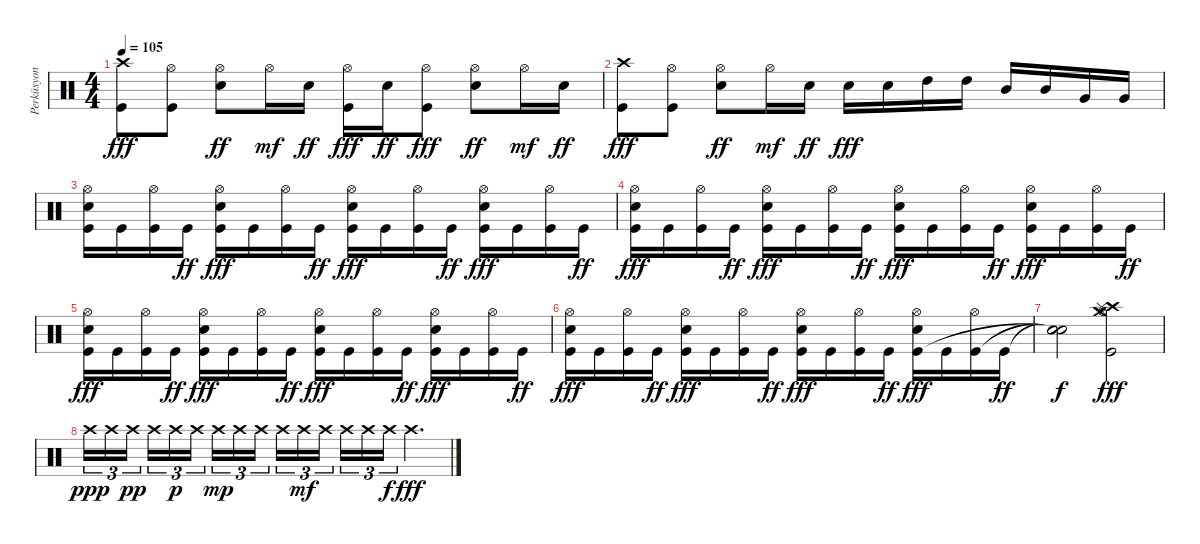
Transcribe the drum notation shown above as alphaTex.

\track ("Perküsyon" "Perküsyon") {instrument percussion}
\staff {score}
\articulation defaults
\ts (4 4)
\tempo 105
\clef neutral
\ks c
("Crash high (hit)" "Kick (hit)").8{dy fff} ("Hi-Hat (open)" "Kick (hit)").8 ("Hi-Hat (open)" "Snare (hit) 2").8{dy ff} "Hi-Hat (open)".16{dy mf} "Snare (hit) 2".16{dy ff} ("Hi-Hat (open)" "Kick (hit)").16{dy fff} "Snare (hit) 2".16{dy ff} ("Hi-Hat (open)" "Kick (hit)").8{dy fff} ("Hi-Hat (open)" "Snare (hit) 2").8{dy ff} "Hi-Hat (open)".16{dy mf} "Snare (hit) 2".16{dy ff} |
("Crash high (hit)" "Kick (hit)").8{dy fff} ("Hi-Hat (open)" "Kick (hit)").8 ("Hi-Hat (open)" "Snare (hit) 2").8{dy ff} "Hi-Hat (open)".16{dy mf} "Snare (hit) 2".16{dy ff} "Snare (hit) 2".16{dy fff} "Snare (hit) 2".16 "High Tom (hit)".16 "High Tom (hit)".16 "Mid Tom (hit)".16 "Mid Tom (hit)".16 "Very Low Tom (hit)".16 "Very Low Tom (hit)".16 |
("Hi-Hat (open)" "Snare (hit) 2" "Kick (hit)").16 "Kick (hit)".16 ("Hi-Hat (open)" "Kick (hit)").16 "Kick (hit)".16{dy ff} ("Hi-Hat (open)" "Snare (hit) 2" "Kick (hit)").16{dy fff} "Kick (hit)".16 ("Hi-Hat (open)" "Kick (hit)").16 "Kick (hit)".16{dy ff} ("Hi-Hat (open)" "Snare (hit) 2" "Kick (hit)").16{dy fff} "Kick (hit)".16 ("Hi-Hat (open)" "Kick (hit)").16 "Kick (hit)".16{dy ff} ("Hi-Hat (open)" "Snare (hit) 2" "Kick (hit)").16{dy fff} "Kick (hit)".16 ("Hi-Hat (open)" "Kick (hit)").16 "Kick (hit)".16{dy ff} |
("Hi-Hat (open)" "Snare (hit) 2" "Kick (hit)").16{dy fff} "Kick (hit)".16 ("Hi-Hat (open)" "Kick (hit)").16 "Kick (hit)".16{dy ff} ("Hi-Hat (open)" "Snare (hit) 2" "Kick (hit)").16{dy fff} "Kick (hit)".16 ("Hi-Hat (open)" "Kick (hit)").16 "Kick (hit)".16{dy ff} ("Hi-Hat (open)" "Snare (hit) 2" "Kick (hit)").16{dy fff} "Kick (hit)".16 ("Hi-Hat (open)" "Kick (hit)").16 "Kick (hit)".16{dy ff} ("Hi-Hat (open)" "Snare (hit) 2" "Kick (hit)").16{dy fff} "Kick (hit)".16 ("Hi-Hat (open)" "Kick (hit)").16 "Kick (hit)".16{dy ff} |
("Hi-Hat (open)" "Snare (hit) 2" "Kick (hit)").16{dy fff} "Kick (hit)".16 ("Hi-Hat (open)" "Kick (hit)").16 "Kick (hit)".16{dy ff} ("Hi-Hat (open)" "Snare (hit) 2" "Kick (hit)").16{dy fff} "Kick (hit)".16 ("Hi-Hat (open)" "Kick (hit)").16 "Kick (hit)".16{dy ff} ("Hi-Hat (open)" "Snare (hit) 2" "Kick (hit)").16{dy fff} "Kick (hit)".16 ("Hi-Hat (open)" "Kick (hit)").16 "Kick (hit)".16{dy ff} ("Hi-Hat (open)" "Snare (hit) 2" "Kick (hit)").16{dy fff} "Kick (hit)".16 ("Hi-Hat (open)" "Kick (hit)").16 "Kick (hit)".16{dy ff} |
("Hi-Hat (open)" "Snare (hit) 2" "Kick (hit)").16{dy fff} "Kick (hit)".16 ("Hi-Hat (open)" "Kick (hit)").16 "Kick (hit)".16{dy ff} ("Hi-Hat (open)" "Snare (hit) 2" "Kick (hit)").16{dy fff} "Kick (hit)".16 ("Hi-Hat (open)" "Kick (hit)").16 "Kick (hit)".16{dy ff} ("Hi-Hat (open)" "Snare (hit) 2" "Kick (hit)").16{dy fff} "Kick (hit)".16 ("Hi-Hat (open)" "Kick (hit)").16 "Kick (hit)".16{dy ff} ("Hi-Hat (open)" "Snare (hit) 2" "Kick (hit)").16{dy fff} "Kick (hit)".16 ("Hi-Hat (open)" "Kick (hit)").16 "Kick (hit)".16{dy ff} |
("Snare (hit)"{t} "Snare (hit)"{t} "Snare (hit)"{t}).2{dy f} ("Crash high (hit)" "Crash medium (hit)" "Splash (hit)" "Hi-Hat (open)" "Kick (hit)").2{dy fff} |
"Crash high (hit)".16{tu (3 2) dy ppp} "Crash high (hit)".16{tu (3 2)} "Crash high (hit)".16{tu (3 2) dy pp beam splitsecondary} "Crash high (hit)".16{tu (3 2)} "Crash high (hit)".16{tu (3 2) dy p} "Crash high (hit)".16{tu (3 2)} "Crash high (hit)".16{tu (3 2) dy mp} "Crash high (hit)".16{tu (3 2)} "Crash high (hit)".16{tu (3 2) beam splitsecondary} "Crash high (hit)".16{tu (3 2)} "Crash high (hit)".16{tu (3 2) dy mf} "Crash high (hit)".16{tu (3 2)} "Crash high (hit)".16{tu (3 2)} "Crash high (hit)".16{tu (3 2)} "Crash high (hit)".16{tu (3 2) dy f} "Crash high (hit)".4{d dy fff}
